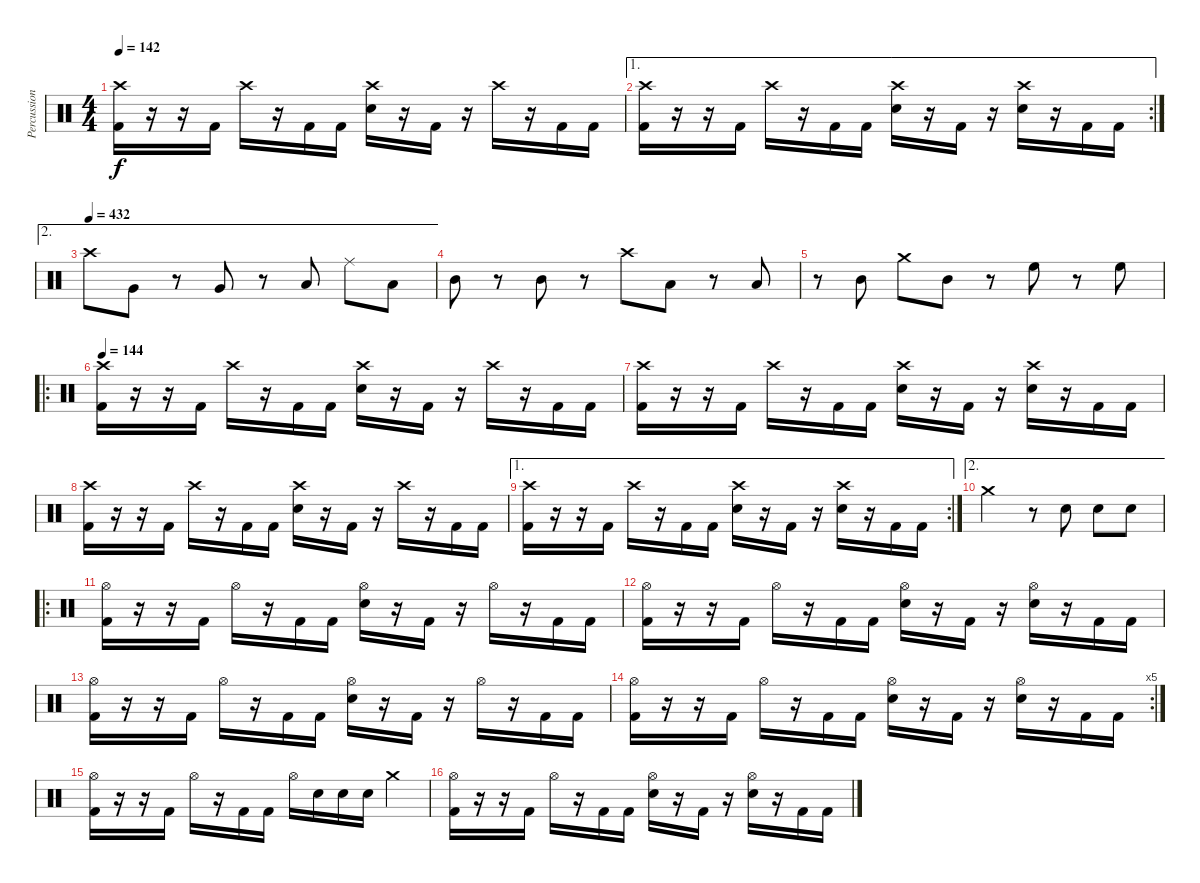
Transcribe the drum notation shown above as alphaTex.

\track ("Percussion" "Percussion") {instrument percussion}
\staff {score}
\articulation defaults
\ts (4 4)
\tempo 142
\clef neutral
\ks c
("Crash high (hit)" "Kick (hit) 2").16{dy f} r.16 r.16 "Kick (hit) 2".16 "Crash high (hit)".16 r.16 "Kick (hit) 2".16 "Kick (hit) 2".16 ("Crash high (hit)" "Snare (hit) 2").16 r.16 "Kick (hit) 2".16 r.16 "Crash high (hit)".16 r.16 "Kick (hit) 2".16 "Kick (hit) 2".16 |
\ae 1
\rc 1
("Crash high (hit)" "Kick (hit) 2").16 r.16 r.16 "Kick (hit) 2".16 "Crash high (hit)".16 r.16 "Kick (hit) 2".16 "Kick (hit) 2".16 ("Crash high (hit)" "Snare (hit) 2").16 r.16 "Kick (hit) 2".16 r.16 ("Crash high (hit)" "Snare (hit) 2").16 r.16 "Kick (hit) 2".16 "Kick (hit) 2".16 |
\ae 2
\tempo (432)
"Crash high (hit)".8 "Very Low Tom (hit)".8 r.8 "Very Low Tom (hit)".8 r.8 "Low Tom (hit)".8 "Ride (middle)".8 "Low Tom (hit)".8 |
"Mid Tom (hit)".8 r.8 "Mid Tom (hit)".8 r.8 "Crash high (hit)".8 "Low Tom (hit)".8 r.8 "Low Tom (hit)".8 |
r.8 "Mid Tom (hit)".8 "Crash medium (hit)".8 "Mid Tom (hit)".8 r.8 "High Floor Tom (hit)".8 r.8 "High Floor Tom (hit)".8 |
\ro
\tempo 144
("Crash high (hit)" "Kick (hit) 2").16 r.16 r.16 "Kick (hit) 2".16 "Crash high (hit)".16 r.16 "Kick (hit) 2".16 "Kick (hit) 2".16 ("Crash high (hit)" "Snare (hit) 2").16 r.16 "Kick (hit) 2".16 r.16 "Crash high (hit)".16 r.16 "Kick (hit) 2".16 "Kick (hit) 2".16 |
("Crash high (hit)" "Kick (hit) 2").16 r.16 r.16 "Kick (hit) 2".16 "Crash high (hit)".16 r.16 "Kick (hit) 2".16 "Kick (hit) 2".16 ("Crash high (hit)" "Snare (hit) 2").16 r.16 "Kick (hit) 2".16 r.16 ("Crash high (hit)" "Snare (hit) 2").16 r.16 "Kick (hit) 2".16 "Kick (hit) 2".16 |
("Crash high (hit)" "Kick (hit) 2").16 r.16 r.16 "Kick (hit) 2".16 "Crash high (hit)".16 r.16 "Kick (hit) 2".16 "Kick (hit) 2".16 ("Crash high (hit)" "Snare (hit) 2").16 r.16 "Kick (hit) 2".16 r.16 "Crash high (hit)".16 r.16 "Kick (hit) 2".16 "Kick (hit) 2".16 |
\ae 1
\rc 2
("Crash high (hit)" "Kick (hit) 2").16 r.16 r.16 "Kick (hit) 2".16 "Crash high (hit)".16 r.16 "Kick (hit) 2".16 "Kick (hit) 2".16 ("Crash high (hit)" "Snare (hit) 2").16 r.16 "Kick (hit) 2".16 r.16 ("Crash high (hit)" "Snare (hit) 2").16 r.16 "Kick (hit) 2".16 "Kick (hit) 2".16 |
\ae 2 "Crash medium (hit)".2
r.8 "Snare (hit) 2".8 "Snare (hit) 2".8 "Snare (hit) 2".8 |
\ro
("Hi-Hat (open)" "Kick (hit) 2").16 r.16 r.16 "Kick (hit) 2".16 "Hi-Hat (open)".16 r.16 "Kick (hit) 2".16 "Kick (hit) 2".16 ("Hi-Hat (open)" "Snare (hit) 2").16 r.16 "Kick (hit) 2".16 r.16 "Hi-Hat (open)".16 r.16 "Kick (hit) 2".16 "Kick (hit) 2".16 |
("Hi-Hat (open)" "Kick (hit) 2").16 r.16 r.16 "Kick (hit) 2".16 "Hi-Hat (open)".16 r.16 "Kick (hit) 2".16 "Kick (hit) 2".16 ("Hi-Hat (open)" "Snare (hit) 2").16 r.16 "Kick (hit) 2".16 r.16 ("Hi-Hat (open)" "Snare (hit) 2").16 r.16 "Kick (hit) 2".16 "Kick (hit) 2".16 |
("Hi-Hat (open)" "Kick (hit) 2").16 r.16 r.16 "Kick (hit) 2".16 "Hi-Hat (open)".16 r.16 "Kick (hit) 2".16 "Kick (hit) 2".16 ("Hi-Hat (open)" "Snare (hit) 2").16 r.16 "Kick (hit) 2".16 r.16 "Hi-Hat (open)".16 r.16 "Kick (hit) 2".16 "Kick (hit) 2".16 |
\rc 5
("Hi-Hat (open)" "Kick (hit) 2").16 r.16 r.16 "Kick (hit) 2".16 "Hi-Hat (open)".16 r.16 "Kick (hit) 2".16 "Kick (hit) 2".16 ("Hi-Hat (open)" "Snare (hit) 2").16 r.16 "Kick (hit) 2".16 r.16 ("Hi-Hat (open)" "Snare (hit) 2").16 r.16 "Kick (hit) 2".16 "Kick (hit) 2".16 |
("Hi-Hat (open)" "Kick (hit) 2").16 r.16 r.16 "Kick (hit) 2".16 "Hi-Hat (open)".16 r.16 "Kick (hit) 2".16 "Kick (hit) 2".16 "Hi-Hat (open)".16 "Snare (hit) 2".16 "Snare (hit) 2".16 "Snare (hit) 2".16 "Crash medium (hit)".4 |
("Hi-Hat (open)" "Kick (hit) 2").16 r.16 r.16 "Kick (hit) 2".16 "Hi-Hat (open)".16 r.16 "Kick (hit) 2".16 "Kick (hit) 2".16 ("Hi-Hat (open)" "Snare (hit) 2").16 r.16 "Kick (hit) 2".16 r.16 ("Hi-Hat (open)" "Snare (hit) 2").16 r.16 "Kick (hit) 2".16 "Kick (hit) 2".16
